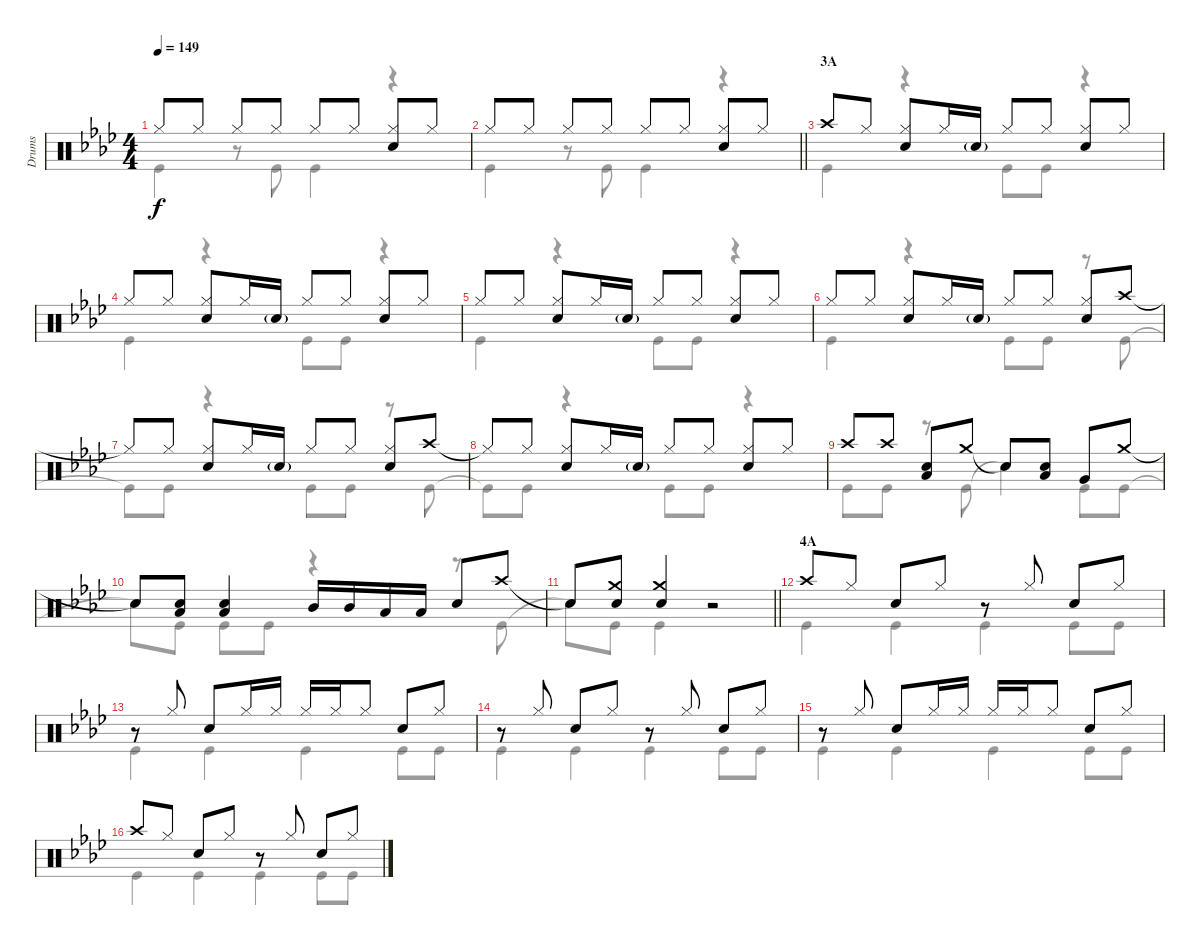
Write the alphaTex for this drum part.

\track ("Drums" "Drums") {instrument percussion}
\staff {score}
\articulation defaults
\voice
\ts (4 4)
\tempo 149
\clef neutral
\ks ab "Hi-Hat (closed)".8{dy f} "Hi-Hat (closed)".8 "Hi-Hat (closed)".8 "Hi-Hat (closed)".8 "Hi-Hat (closed)".8 "Hi-Hat (closed)".8
("Hi-Hat (closed)" "Snare (hit) 2").8 "Hi-Hat (closed)".8 |
\barLineRight lightlight "Hi-Hat (closed)".8 "Hi-Hat (closed)".8 "Hi-Hat (closed)".8 "Hi-Hat (closed)".8 "Hi-Hat (closed)".8 "Hi-Hat (closed)".8
("Hi-Hat (closed)" "Snare (hit) 2").8 "Hi-Hat (closed)".8 |
\section ("" "3A")
"Crash high (hit)".8 "Hi-Hat (closed)".8 ("Hi-Hat (closed)" "Snare (hit) 2").8 "Hi-Hat (closed)".16 "Snare (hit) 2"{g}.16 "Hi-Hat (closed)".8 "Hi-Hat (closed)".8 ("Hi-Hat (closed)" "Snare (hit) 2").8 "Hi-Hat (closed)".8 |
"Hi-Hat (closed)".8 "Hi-Hat (closed)".8 ("Hi-Hat (closed)" "Snare (hit) 2").8 "Hi-Hat (closed)".16 "Snare (hit) 2"{g}.16 "Hi-Hat (closed)".8 "Hi-Hat (closed)".8 ("Hi-Hat (closed)" "Snare (hit) 2").8 "Hi-Hat (closed)".8 |
"Hi-Hat (closed)".8 "Hi-Hat (closed)".8 ("Hi-Hat (closed)" "Snare (hit) 2").8 "Hi-Hat (closed)".16 "Snare (hit) 2"{g}.16 "Hi-Hat (closed)".8 "Hi-Hat (closed)".8 ("Hi-Hat (closed)" "Snare (hit) 2").8 "Hi-Hat (closed)".8 |
"Hi-Hat (closed)".8 "Hi-Hat (closed)".8 ("Hi-Hat (closed)" "Snare (hit) 2").8 "Hi-Hat (closed)".16 "Snare (hit) 2"{g}.16 "Hi-Hat (closed)".8 "Hi-Hat (closed)".8 ("Hi-Hat (closed)" "Snare (hit) 2").8 "Crash high (hit)".8 |
"Hi-Hat (closed)"{t}.8 "Hi-Hat (closed)".8 ("Hi-Hat (closed)" "Snare (hit) 2").8 "Hi-Hat (closed)".16 "Snare (hit) 2"{g}.16 "Hi-Hat (closed)".8 "Hi-Hat (closed)".8 ("Hi-Hat (closed)" "Snare (hit) 2").8 "Crash high (hit)".8 |
"Hi-Hat (closed)"{t}.8 "Hi-Hat (closed)".8 ("Hi-Hat (closed)" "Snare (hit) 2").8 "Hi-Hat (closed)".16 "Snare (hit) 2"{g}.16 "Hi-Hat (closed)".8 "Hi-Hat (closed)".8 ("Hi-Hat (closed)" "Snare (hit) 2").8 "Hi-Hat (closed)".8 |
"Crash high (hit)".8 "Crash high (hit)".8 ("Snare (hit) 2" "Low Tom (hit)").8 "Crash medium (hit)".8 "Snare (hit)"{t}.8 ("Snare (hit) 2" "Low Tom (hit)").8 "Very Low Tom (hit)".8 "Crash medium (hit)".8 |
"Snare (hit)"{t}.8 ("Low Tom (hit)" "Snare (hit) 2").8 ("Low Tom (hit)" "Snare (hit) 2").4 "Mid Tom (hit)".16 "Mid Tom (hit)".16 "Low Tom (hit)".16 "Low Tom (hit)".16 "Snare (hit) 2".8 "Crash high (hit)".8 |
\barLineRight lightlight "Snare (hit)"{t}.8
("Crash medium (hit)" "Snare (hit) 2").8 ("Crash medium (hit)" "Snare (hit) 2").4 r.2 |
\section ("" "4A")
"Crash high (hit)".8 "Hi-Hat (closed)".8 "Snare (hit) 2".8 "Hi-Hat (closed)".8 r.8 "Hi-Hat (closed)".8 "Snare (hit) 2".8 "Hi-Hat (closed)".8 |
r.8 "Hi-Hat (closed)".8 "Snare (hit) 2".8 "Hi-Hat (closed)".16 "Hi-Hat (closed)".16 "Hi-Hat (closed)".16 "Hi-Hat (closed)".16 "Hi-Hat (closed)".8 "Snare (hit) 2".8 "Hi-Hat (closed)".8 |
r.8 "Hi-Hat (closed)".8 "Snare (hit) 2".8 "Hi-Hat (closed)".8 r.8 "Hi-Hat (closed)".8 "Snare (hit) 2".8 "Hi-Hat (closed)".8 |
r.8 "Hi-Hat (closed)".8 "Snare (hit) 2".8 "Hi-Hat (closed)".16 "Hi-Hat (closed)".16 "Hi-Hat (closed)".16 "Hi-Hat (closed)".16 "Hi-Hat (closed)".8 "Snare (hit) 2".8 "Hi-Hat (closed)".8 |
"Crash high (hit)".8 "Hi-Hat (closed)".8 "Snare (hit) 2".8 "Hi-Hat (closed)".8 r.8 "Hi-Hat (closed)".8 "Snare (hit) 2".8 "Hi-Hat (closed)".8
\voice
\clef neutral
\ottava regular
\simile none
\ks ab "Kick (hit)".4{dy f}
r.8 "Kick (hit)".8 "Kick (hit)".4 r.4 |
\barLineRight lightlight "Kick (hit)".4
r.8 "Kick (hit)".8 "Kick (hit)".4 r.4 |
"Kick (hit)".4 r.4 "Kick (hit)".8 "Kick (hit)".8 r.4 |
"Kick (hit)".4 r.4 "Kick (hit)".8 "Kick (hit)".8 r.4 |
"Kick (hit)".4 r.4 "Kick (hit)".8 "Kick (hit)".8 r.4 |
"Kick (hit)".4 r.4 "Kick (hit)".8 "Kick (hit)".8 r.8 "Kick (hit)".8 |
"Kick (hit)"{t}.8 "Kick (hit)".8 r.4 "Kick (hit)".8 "Kick (hit)".8 r.8 "Kick (hit)".8 |
"Kick (hit)"{t}.8 "Kick (hit)".8 r.4 "Kick (hit)".8 "Kick (hit)".8 r.4 |
"Kick (hit)".8 "Kick (hit)".8 r.8 "Kick (hit)".8 "Snare (hit)"{t}.4 "Kick (hit)".8 "Kick (hit)".8 |
"Snare (hit)"{t}.8 "Kick (hit)".8 "Kick (hit)".8 "Kick (hit)".8 r.4 r.8 "Kick (hit)".8 |
\barLineRight lightlight "Snare (hit)"{t}.8 "Kick (hit)".8 "Kick (hit)".4
r.2 |
"Kick (hit)".4 "Kick (hit)".4 "Kick (hit)".4 "Kick (hit)".8 "Kick (hit)".8 |
"Kick (hit)".4 "Kick (hit)".4 "Kick (hit)".4 "Kick (hit)".8 "Kick (hit)".8 |
"Kick (hit)".4 "Kick (hit)".4 "Kick (hit)".4 "Kick (hit)".8 "Kick (hit)".8 |
"Kick (hit)".4 "Kick (hit)".4 "Kick (hit)".4 "Kick (hit)".8 "Kick (hit)".8 |
"Kick (hit)".4 "Kick (hit)".4 "Kick (hit)".4 "Kick (hit)".8 "Kick (hit)".8
